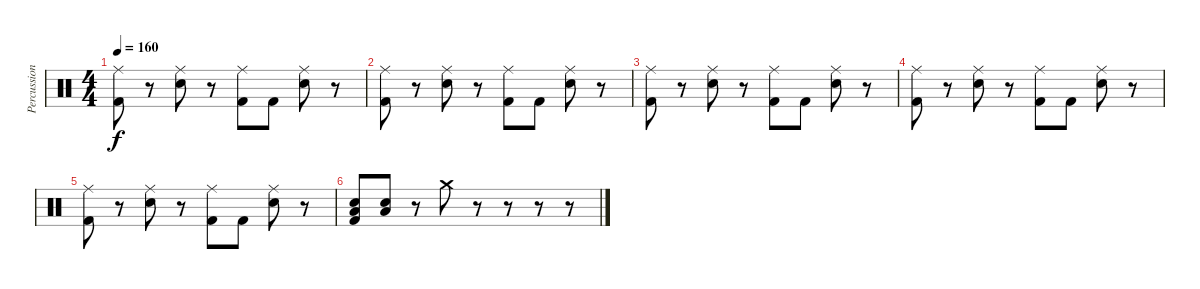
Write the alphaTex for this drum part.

\track ("Percussion" "Percussion") {instrument percussion}
\staff {score}
\articulation defaults
\ts (4 4)
\tempo 160
\clef neutral
\ks c
("Ride (middle)" "Kick (hit) 2").8{dy f} r.8 ("Ride (middle)" "Electric Snare (hit)").8 r.8 ("Ride (middle)" "Kick (hit) 2").8 "Kick (hit) 2".8 ("Ride (middle)" "Electric Snare (hit)").8 r.8 |
("Ride (middle)" "Kick (hit) 2").8 r.8 ("Ride (middle)" "Electric Snare (hit)").8 r.8 ("Ride (middle)" "Kick (hit) 2").8 "Kick (hit) 2".8 ("Ride (middle)" "Electric Snare (hit)").8 r.8 |
("Ride (middle)" "Kick (hit) 2").8 r.8 ("Ride (middle)" "Electric Snare (hit)").8 r.8 ("Ride (middle)" "Kick (hit) 2").8 "Kick (hit) 2".8 ("Ride (middle)" "Electric Snare (hit)").8 r.8 |
("Ride (middle)" "Kick (hit) 2").8 r.8 ("Ride (middle)" "Electric Snare (hit)").8 r.8 ("Ride (middle)" "Kick (hit) 2").8 "Kick (hit) 2".8 ("Ride (middle)" "Electric Snare (hit)").8 r.8 |
("Ride (middle)" "Kick (hit) 2").8 r.8 ("Ride (middle)" "Electric Snare (hit)").8 r.8 ("Ride (middle)" "Kick (hit) 2").8 "Kick (hit) 2".8 ("Ride (middle)" "Electric Snare (hit)").8 r.8 |
("Low Floor Tom (hit)" "Electric Snare (hit)" "Kick (hit) 2").8 ("Low Floor Tom (hit)" "Electric Snare (hit)").8 r.8 "Crash medium (hit)".8 r.8 r.8 r.8 r.8
